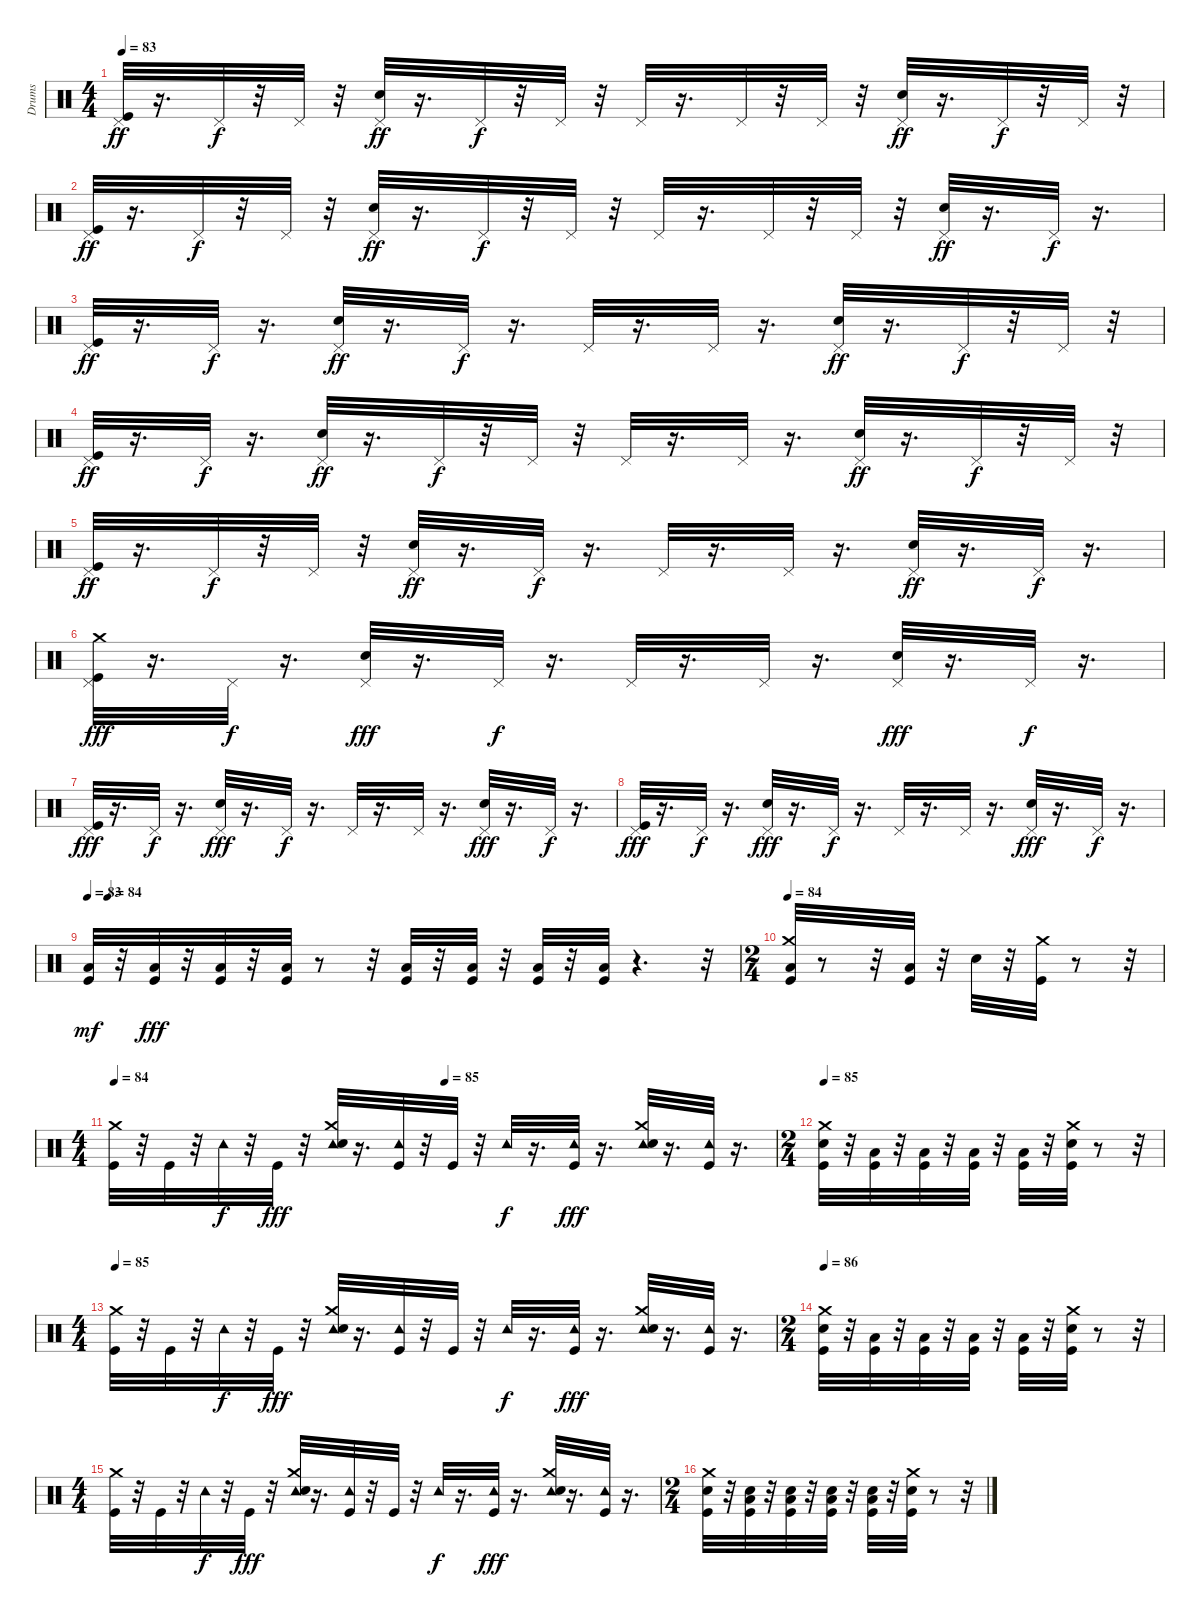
\track ("Drums" "Drums") {instrument percussion}
\staff {score}
\articulation defaults
\ts (4 4)
\tempo 83
\clef neutral
\ks c
("Pedal Hi-Hat (hit)" "Kick (hit)").32{dy ff} r.16{d} "Pedal Hi-Hat (hit)".32{dy f} r.32 "Pedal Hi-Hat (hit)".32 r.32 ("Pedal Hi-Hat (hit)" "Electric Snare (hit)").32{dy ff} r.16{d} "Pedal Hi-Hat (hit)".32{dy f} r.32 "Pedal Hi-Hat (hit)".32 r.32 "Pedal Hi-Hat (hit)".32 r.16{d} "Pedal Hi-Hat (hit)".32 r.32 "Pedal Hi-Hat (hit)".32 r.32 ("Pedal Hi-Hat (hit)" "Electric Snare (hit)").32{dy ff} r.16{d} "Pedal Hi-Hat (hit)".32{dy f} r.32 "Pedal Hi-Hat (hit)".32 r.32 |
("Pedal Hi-Hat (hit)" "Kick (hit)").32{dy ff} r.16{d} "Pedal Hi-Hat (hit)".32{dy f} r.32 "Pedal Hi-Hat (hit)".32 r.32 ("Pedal Hi-Hat (hit)" "Electric Snare (hit)").32{dy ff} r.16{d} "Pedal Hi-Hat (hit)".32{dy f} r.32 "Pedal Hi-Hat (hit)".32 r.32 "Pedal Hi-Hat (hit)".32 r.16{d} "Pedal Hi-Hat (hit)".32 r.32 "Pedal Hi-Hat (hit)".32 r.32 ("Pedal Hi-Hat (hit)" "Electric Snare (hit)").32{dy ff} r.16{d} "Pedal Hi-Hat (hit)".32{dy f} r.16{d} |
("Pedal Hi-Hat (hit)" "Kick (hit)").32{dy ff} r.16{d} "Pedal Hi-Hat (hit)".32{dy f} r.16{d} ("Pedal Hi-Hat (hit)" "Electric Snare (hit)").32{dy ff} r.16{d} "Pedal Hi-Hat (hit)".32{dy f} r.16{d} "Pedal Hi-Hat (hit)".32 r.16{d} "Pedal Hi-Hat (hit)".32 r.16{d} ("Pedal Hi-Hat (hit)" "Electric Snare (hit)").32{dy ff} r.16{d} "Pedal Hi-Hat (hit)".32{dy f} r.32 "Pedal Hi-Hat (hit)".32 r.32 |
("Pedal Hi-Hat (hit)" "Kick (hit)").32{dy ff} r.16{d} "Pedal Hi-Hat (hit)".32{dy f} r.16{d} ("Pedal Hi-Hat (hit)" "Electric Snare (hit)").32{dy ff} r.16{d} "Pedal Hi-Hat (hit)".32{dy f} r.32 "Pedal Hi-Hat (hit)".32 r.32 "Pedal Hi-Hat (hit)".32 r.16{d} "Pedal Hi-Hat (hit)".32 r.16{d} ("Pedal Hi-Hat (hit)" "Electric Snare (hit)").32{dy ff} r.16{d} "Pedal Hi-Hat (hit)".32{dy f} r.32 "Pedal Hi-Hat (hit)".32 r.32 |
("Pedal Hi-Hat (hit)" "Kick (hit)").32{dy ff} r.16{d} "Pedal Hi-Hat (hit)".32{dy f} r.32 "Pedal Hi-Hat (hit)".32 r.32 ("Pedal Hi-Hat (hit)" "Electric Snare (hit)").32{dy ff} r.16{d} "Pedal Hi-Hat (hit)".32{dy f} r.16{d} "Pedal Hi-Hat (hit)".32 r.16{d} "Pedal Hi-Hat (hit)".32 r.16{d} ("Pedal Hi-Hat (hit)" "Electric Snare (hit)").32{dy ff} r.16{d} "Pedal Hi-Hat (hit)".32{dy f} r.16{d} |
("Crash medium (hit)" "Pedal Hi-Hat (hit)" "Kick (hit)").32{dy fff} r.16{d} "Pedal Hi-Hat (hit)".32{dy f} r.16{d} ("Pedal Hi-Hat (hit)" "Electric Snare (hit)").32{dy fff} r.16{d} "Pedal Hi-Hat (hit)".32{dy f} r.16{d} "Pedal Hi-Hat (hit)".32 r.16{d} "Pedal Hi-Hat (hit)".32 r.16{d} ("Pedal Hi-Hat (hit)" "Electric Snare (hit)").32{dy fff} r.16{d} "Pedal Hi-Hat (hit)".32{dy f} r.16{d} |
("Pedal Hi-Hat (hit)" "Kick (hit)").32{dy fff} r.16{d} "Pedal Hi-Hat (hit)".32{dy f} r.16{d} ("Pedal Hi-Hat (hit)" "Electric Snare (hit)").32{dy fff} r.16{d} "Pedal Hi-Hat (hit)".32{dy f} r.16{d} "Pedal Hi-Hat (hit)".32 r.16{d} "Pedal Hi-Hat (hit)".32 r.16{d} ("Pedal Hi-Hat (hit)" "Electric Snare (hit)").32{dy fff} r.16{d} "Pedal Hi-Hat (hit)".32{dy f} r.16{d} |
("Pedal Hi-Hat (hit)" "Kick (hit)").32{dy fff} r.16{d} "Pedal Hi-Hat (hit)".32{dy f} r.16{d} ("Pedal Hi-Hat (hit)" "Electric Snare (hit)").32{dy fff} r.16{d} "Pedal Hi-Hat (hit)".32{dy f} r.16{d} "Pedal Hi-Hat (hit)".32 r.16{d} "Pedal Hi-Hat (hit)".32 r.16{d} ("Pedal Hi-Hat (hit)" "Electric Snare (hit)").32{dy fff} r.16{d} "Pedal Hi-Hat (hit)".32{dy f} r.16{d} |
\tempo 83
\tempo (84 0.03125)
("Kick (hit)" "Low Floor Tom (hit)").32{dy mf} r.32 ("Low Floor Tom (hit)" "Kick (hit)").32{dy fff} r.32 ("Low Floor Tom (hit)" "Kick (hit)").32 r.32 ("Low Floor Tom (hit)" "Kick (hit)").32 r.8 r.32 ("Low Floor Tom (hit)" "Kick (hit)").32 r.32 ("Low Floor Tom (hit)" "Kick (hit)").32 r.32 ("Low Floor Tom (hit)" "Kick (hit)").32 r.32 ("Low Floor Tom (hit)" "Kick (hit)").32 r.4{d} r.32 |
\ts (2 4)
\tempo 84
("Low Floor Tom (hit)" "Crash medium (hit)" "Kick (hit)").32{volume 16} r.8 r.32 ("Low Floor Tom (hit)" "Kick (hit)").32 r.32 "Electric Snare (hit)".32 r.32 ("Crash medium (hit)" "Kick (hit)").32 r.8 r.32 |
\ts (4 4)
\tempo 84
\tempo (85 0.5)
("Kick (hit)" "Crash medium (hit)").32 r.32 "Kick (hit)".32 r.32 "Tambourine (hit)".32{dy f} r.32 "Kick (hit)".32{dy fff} r.32 ("Crash medium (hit)" "Tambourine (hit)" "Electric Snare (hit)").32 r.16{d} ("Tambourine (hit)" "Kick (hit)").32 r.32 "Kick (hit)".32 r.32 "Tambourine (hit)".32{dy f} r.16{d} ("Kick (hit)" "Tambourine (hit)").32{dy fff} r.16{d} ("Crash medium (hit)" "Tambourine (hit)" "Electric Snare (hit)").32 r.16{d} ("Kick (hit)" "Tambourine (hit)").32 r.16{d} |
\ts (2 4)
\tempo 85
("Electric Snare (hit)" "Crash medium (hit)" "Kick (hit)").32 r.32 ("Low Floor Tom (hit)" "Kick (hit)").32 r.32 ("Low Floor Tom (hit)" "Kick (hit)").32 r.32 ("Low Floor Tom (hit)" "Kick (hit)").32 r.32 ("Low Floor Tom (hit)" "Kick (hit)").32 r.32 ("Electric Snare (hit)" "Crash medium (hit)" "Kick (hit)").32 r.8 r.32 |
\ts (4 4)
\tempo 85
("Kick (hit)" "Crash medium (hit)").32 r.32 "Kick (hit)".32 r.32 "Tambourine (hit)".32{dy f} r.32 "Kick (hit)".32{dy fff} r.32 ("Crash medium (hit)" "Tambourine (hit)" "Electric Snare (hit)").32 r.16{d} ("Tambourine (hit)" "Kick (hit)").32 r.32 "Kick (hit)".32 r.32 "Tambourine (hit)".32{dy f} r.16{d} ("Kick (hit)" "Tambourine (hit)").32{dy fff} r.16{d} ("Crash medium (hit)" "Tambourine (hit)" "Electric Snare (hit)").32 r.16{d} ("Kick (hit)" "Tambourine (hit)").32 r.16{d} |
\ts (2 4)
\tempo 86
("Electric Snare (hit)" "Crash medium (hit)" "Kick (hit)").32 r.32 ("Low Floor Tom (hit)" "Kick (hit)").32 r.32 ("Low Floor Tom (hit)" "Kick (hit)").32 r.32 ("Low Floor Tom (hit)" "Kick (hit)").32 r.32 ("Low Floor Tom (hit)" "Kick (hit)").32 r.32 ("Electric Snare (hit)" "Crash medium (hit)" "Kick (hit)").32 r.8 r.32 |
\ts (4 4)
("Kick (hit)" "Crash medium (hit)").32 r.32 "Kick (hit)".32 r.32 "Tambourine (hit)".32{dy f} r.32 "Kick (hit)".32{dy fff} r.32 ("Crash medium (hit)" "Tambourine (hit)" "Electric Snare (hit)").32 r.16{d} ("Tambourine (hit)" "Kick (hit)").32 r.32 "Kick (hit)".32 r.32 "Tambourine (hit)".32{dy f} r.16{d} ("Kick (hit)" "Tambourine (hit)").32{dy fff} r.16{d} ("Crash medium (hit)" "Tambourine (hit)" "Electric Snare (hit)").32 r.16{d} ("Kick (hit)" "Tambourine (hit)").32 r.16{d} |
\ts (2 4)
("Electric Snare (hit)" "Crash medium (hit)" "Kick (hit)").32 r.32 ("Electric Snare (hit)" "Low Floor Tom (hit)" "Kick (hit)").32 r.32 ("Electric Snare (hit)" "Low Floor Tom (hit)" "Kick (hit)").32 r.32 ("Electric Snare (hit)" "Low Floor Tom (hit)" "Kick (hit)").32 r.32 ("Electric Snare (hit)" "Low Floor Tom (hit)" "Kick (hit)").32 r.32 ("Electric Snare (hit)" "Crash medium (hit)" "Kick (hit)").32 r.8 r.32
